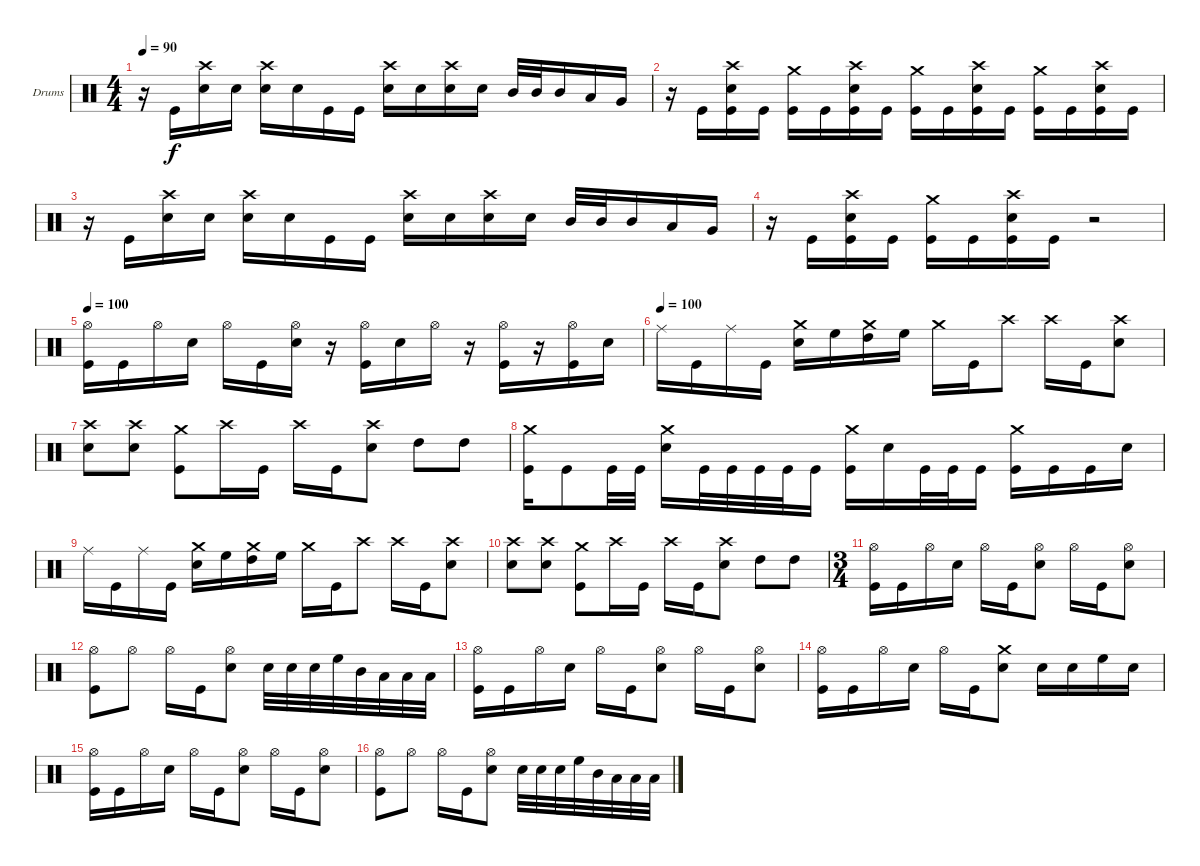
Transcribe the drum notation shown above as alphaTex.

\bracketExtendMode groupsimilarinstruments
\firstSystemTrackNameOrientation horizontal
\otherSystemsTrackNameOrientation horizontal
\track ("Emile Bardou" "Drums") {instrument percussion}
\staff {score}
\articulation defaults
\ts (4 4)
\tempo 90
\clef neutral
\scale
0.333333
\ks c
r.16{dy f} "Kick (hit)".16 ("Snare (hit) 2" "Crash high (hit)").16 "Snare (hit) 2".16 ("Snare (hit) 2" "Crash high (hit)").16 "Snare (hit) 2".16 "Kick (hit)".16 "Kick (hit)".16 ("Snare (hit) 2" "Crash high (hit)").16 "Snare (hit) 2".16 ("Snare (hit) 2" "Crash high (hit)").16 "Snare (hit) 2".16 "Mid Tom (hit)".32 "Mid Tom (hit)".32 "Mid Tom (hit)".16 "Low Tom (hit)".16 "Very Low Tom (hit)".16 |
\scale
0.333333 r.16 "Kick (hit)".16 ("Crash high (hit)" "Snare (hit) 2" "Kick (hit)").16 "Kick (hit)".16 ("Crash medium (hit)" "Kick (hit)").16 "Kick (hit)".16 ("Crash high (hit)" "Snare (hit) 2" "Kick (hit)").16 "Kick (hit)".16 ("Crash medium (hit)" "Kick (hit)").16 "Kick (hit)".16 ("Crash high (hit)" "Snare (hit) 2" "Kick (hit)").16 "Kick (hit)".16 ("Crash medium (hit)" "Kick (hit)").16 "Kick (hit)".16 ("Crash high (hit)" "Snare (hit) 2" "Kick (hit)").16 "Kick (hit)".16 |
\scale
0.333333 r.16 "Kick (hit)".16 ("Snare (hit) 2" "Crash high (hit)").16 "Snare (hit) 2".16 ("Snare (hit) 2" "Crash high (hit)").16 "Snare (hit) 2".16 "Kick (hit)".16 "Kick (hit)".16 ("Snare (hit) 2" "Crash high (hit)").16 "Snare (hit) 2".16 ("Snare (hit) 2" "Crash high (hit)").16 "Snare (hit) 2".16 "Mid Tom (hit)".32 "Mid Tom (hit)".32 "Mid Tom (hit)".16 "Low Tom (hit)".16 "Very Low Tom (hit)".16 |
\scale
0.333333 r.16 "Kick (hit)".16 ("Crash high (hit)" "Snare (hit) 2" "Kick (hit)").16 "Kick (hit)".16 ("Crash medium (hit)" "Kick (hit)").16 "Kick (hit)".16 ("Crash high (hit)" "Snare (hit) 2" "Kick (hit)").16 "Kick (hit)".16 r.2 |
\tempo 100
\scale
0.333333 ("Kick (hit)" "Hi-Hat (open)").16 "Kick (hit)".16 "Hi-Hat (open)".16 "Snare (hit) 2".16 "Hi-Hat (open)".16 "Kick (hit)".16 ("Snare (hit) 2" "Hi-Hat (open)").16 r.16 ("Kick (hit)" "Hi-Hat (open)").16 "Snare (hit) 2".16 "Hi-Hat (open)".16 r.16 ("Kick (hit)" "Hi-Hat (open)").16 r.16 ("Kick (hit)" "Hi-Hat (open)").16 "Snare (hit) 2".16 |
\tempo 100
\scale
0.333333 "Ride (middle)".16 "Kick (hit)".16 "Ride (middle)".16 "Kick (hit)".16 ("Snare (hit) 2" "Crash medium (hit)").16 "High Floor Tom (hit)".16 ("High Tom (hit)" "Crash medium (hit)").16 "High Floor Tom (hit)".16 "Crash medium (hit)".16 "Kick (hit)".16 "Crash high (hit)".8 "Crash high (hit)".16 "Kick (hit)".16 ("Snare (hit) 2" "Crash high (hit)").8 |
\scale
0.333333 ("Snare (hit) 2" "Crash high (hit)").8 ("Snare (hit) 2" "Crash high (hit)").8 ("Kick (hit)" "Crash medium (hit)").8 "Crash high (hit)".16 "Kick (hit)".16 "Crash high (hit)".16 "Kick (hit)".16 ("Snare (hit) 2" "Crash high (hit)").8 "High Tom (hit)".8 "High Tom (hit)".8 |
\scale
0.333333 ("Kick (hit)" "Crash medium (hit)").16 "Kick (hit)".8 "Kick (hit)".32 "Kick (hit)".32 ("Crash medium (hit)" "Snare (hit) 2").16 "Kick (hit)".32 "Kick (hit)".32 "Kick (hit)".32 "Kick (hit)".32 "Kick (hit)".16 ("Kick (hit)" "Crash medium (hit)").16 "Snare (hit) 2".16 "Kick (hit)".32 "Kick (hit)".32 "Kick (hit)".16 ("Kick (hit)" "Crash medium (hit)").16 "Kick (hit)".16 "Kick (hit)".16 "Snare (hit) 2".16 |
\scale
0.262911 "Ride (middle)".16 "Kick (hit)".16 "Ride (middle)".16 "Kick (hit)".16 ("Snare (hit) 2" "Crash medium (hit)").16 "High Floor Tom (hit)".16 ("High Tom (hit)" "Crash medium (hit)").16 "High Floor Tom (hit)".16 "Crash medium (hit)".16 "Kick (hit)".16 "Crash high (hit)".8 "Crash high (hit)".16 "Kick (hit)".16 ("Snare (hit) 2" "Crash high (hit)").8 |
\scale
0.262911 ("Snare (hit) 2" "Crash high (hit)").8 ("Snare (hit) 2" "Crash high (hit)").8 ("Kick (hit)" "Crash medium (hit)").8 "Crash high (hit)".16 "Kick (hit)".16 "Crash high (hit)".16 "Kick (hit)".16 ("Snare (hit) 2" "Crash high (hit)").8 "High Tom (hit)".8 "High Tom (hit)".8 |
\ts (3 4)
\scale
0.474178 ("Hi-Hat (open)" "Kick (hit)").16 "Kick (hit)".16 "Hi-Hat (open)".16 "Snare (hit) 2".16 "Hi-Hat (open)".16 "Kick (hit)".16 ("Hi-Hat (open)" "Snare (hit) 2").8 "Hi-Hat (open)".16 "Kick (hit)".16 ("Hi-Hat (open)" "Snare (hit) 2").8 |
\scale
0.333333 ("Hi-Hat (open)" "Kick (hit)").8 "Hi-Hat (open)".8 "Hi-Hat (open)".16 "Kick (hit)".16 ("Hi-Hat (open)" "Snare (hit) 2").8 "Snare (hit) 2".32 "Snare (hit) 2".32 "Snare (hit) 2".32 "High Floor Tom (hit)".32 "Mid Tom (hit)".32 "Low Tom (hit)".32 "Low Tom (hit)".32 "Low Tom (hit)".32 |
\scale
0.333333 ("Hi-Hat (open)" "Kick (hit)").16 "Kick (hit)".16 "Hi-Hat (open)".16 "Snare (hit) 2".16 "Hi-Hat (open)".16 "Kick (hit)".16 ("Hi-Hat (open)" "Snare (hit) 2").8 "Hi-Hat (open)".16 "Kick (hit)".16 ("Hi-Hat (open)" "Snare (hit) 2").8 |
\scale
0.333333 ("Hi-Hat (open)" "Kick (hit)").16 "Kick (hit)".16 "Hi-Hat (open)".16 "Snare (hit) 2".16 "Hi-Hat (open)".16 "Kick (hit)".16 ("Crash medium (hit)" "Snare (hit) 2").8 "Snare (hit) 2".16 "Snare (hit) 2".16 "High Floor Tom (hit)".16 "Snare (hit) 2".16 |
\scale
0.333333 ("Hi-Hat (open)" "Kick (hit)").16 "Kick (hit)".16 "Hi-Hat (open)".16 "Snare (hit) 2".16 "Hi-Hat (open)".16 "Kick (hit)".16 ("Hi-Hat (open)" "Snare (hit) 2").8 "Hi-Hat (open)".16 "Kick (hit)".16 ("Hi-Hat (open)" "Snare (hit) 2").8 |
\scale
0.333333 ("Hi-Hat (open)" "Kick (hit)").8 "Hi-Hat (open)".8 "Hi-Hat (open)".16 "Kick (hit)".16 ("Hi-Hat (open)" "Snare (hit) 2").8 "Snare (hit) 2".32 "Snare (hit) 2".32 "Snare (hit) 2".32 "High Floor Tom (hit)".32 "Mid Tom (hit)".32 "Low Tom (hit)".32 "Low Tom (hit)".32 "Low Tom (hit)".32
